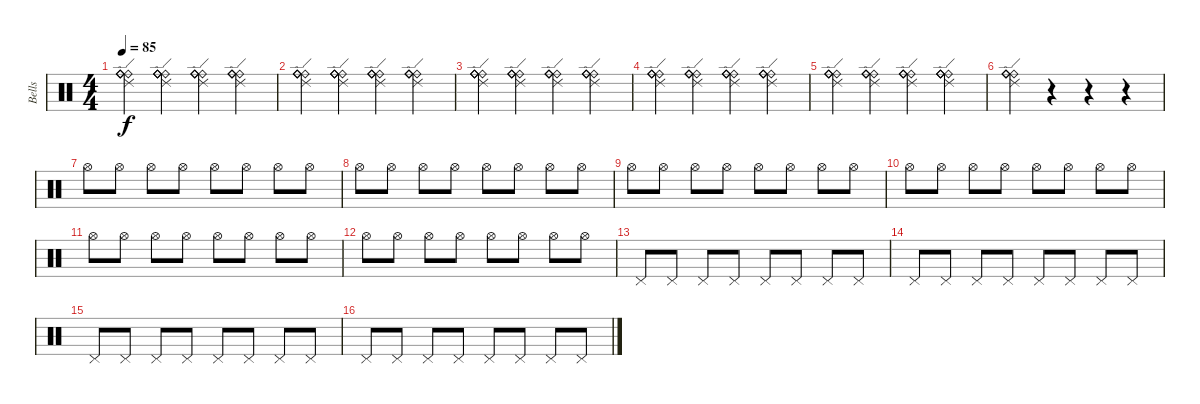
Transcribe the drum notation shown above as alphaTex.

\track ("Bells" "Bells") {instrument percussion}
\staff {score}
\articulation defaults
\ts (4 4)
\tempo 85
\clef neutral
\ks c
("Ride (bell)" "Ride (bell)" "Ride (bell)" "Ride (bell)" "Ride (edge) 2").4{dy f} ("Ride (bell)" "Ride (bell)" "Ride (bell)" "Ride (bell)" "Ride (edge) 2").4 ("Ride (bell)" "Ride (bell)" "Ride (bell)" "Ride (bell)" "Ride (edge) 2").4 ("Ride (bell)" "Ride (bell)" "Ride (bell)" "Ride (bell)" "Ride (edge) 2").4 |
("Ride (bell)" "Ride (bell)" "Ride (bell)" "Ride (bell)" "Ride (edge) 2").4 ("Ride (bell)" "Ride (bell)" "Ride (bell)" "Ride (bell)" "Ride (edge) 2").4 ("Ride (bell)" "Ride (bell)" "Ride (bell)" "Ride (bell)" "Ride (edge) 2").4 ("Ride (bell)" "Ride (bell)" "Ride (bell)" "Ride (bell)" "Ride (edge) 2").4 |
("Ride (bell)" "Ride (bell)" "Ride (bell)" "Ride (bell)" "Ride (edge) 2").4 ("Ride (bell)" "Ride (bell)" "Ride (bell)" "Ride (bell)" "Ride (edge) 2").4 ("Ride (bell)" "Ride (bell)" "Ride (bell)" "Ride (bell)" "Ride (edge) 2").4 ("Ride (bell)" "Ride (bell)" "Ride (bell)" "Ride (bell)" "Ride (edge) 2").4 |
("Ride (bell)" "Ride (bell)" "Ride (bell)" "Ride (bell)" "Ride (edge) 2").4 ("Ride (bell)" "Ride (bell)" "Ride (bell)" "Ride (bell)" "Ride (edge) 2").4 ("Ride (bell)" "Ride (bell)" "Ride (bell)" "Ride (bell)" "Ride (edge) 2").4 ("Ride (bell)" "Ride (bell)" "Ride (bell)" "Ride (bell)" "Ride (edge) 2").4 |
("Ride (bell)" "Ride (bell)" "Ride (bell)" "Ride (bell)" "Ride (edge) 2").4 ("Ride (bell)" "Ride (bell)" "Ride (bell)" "Ride (bell)" "Ride (edge) 2").4 ("Ride (bell)" "Ride (bell)" "Ride (bell)" "Ride (bell)" "Ride (edge) 2").4 ("Ride (bell)" "Ride (bell)" "Ride (bell)" "Ride (bell)" "Ride (edge) 2").4 |
("Ride (bell)" "Ride (bell)" "Ride (bell)" "Ride (bell)" "Ride (edge) 2").4 r.4 r.4 r.4 |
"Hi-Hat (open)".8{balance 12} "Hi-Hat (open)".8 "Hi-Hat (open)".8 "Hi-Hat (open)".8 "Hi-Hat (open)".8 "Hi-Hat (open)".8 "Hi-Hat (open)".8 "Hi-Hat (open)".8 |
"Hi-Hat (open)".8 "Hi-Hat (open)".8 "Hi-Hat (open)".8 "Hi-Hat (open)".8 "Hi-Hat (open)".8 "Hi-Hat (open)".8 "Hi-Hat (open)".8 "Hi-Hat (open)".8 |
"Hi-Hat (open)".8 "Hi-Hat (open)".8 "Hi-Hat (open)".8 "Hi-Hat (open)".8 "Hi-Hat (open)".8 "Hi-Hat (open)".8 "Hi-Hat (open)".8 "Hi-Hat (open)".8 |
"Hi-Hat (open)".8 "Hi-Hat (open)".8 "Hi-Hat (open)".8 "Hi-Hat (open)".8 "Hi-Hat (open)".8 "Hi-Hat (open)".8 "Hi-Hat (open)".8 "Hi-Hat (open)".8 |
"Hi-Hat (open)".8 "Hi-Hat (open)".8 "Hi-Hat (open)".8 "Hi-Hat (open)".8 "Hi-Hat (open)".8 "Hi-Hat (open)".8 "Hi-Hat (open)".8 "Hi-Hat (open)".8 |
"Hi-Hat (open)".8 "Hi-Hat (open)".8 "Hi-Hat (open)".8 "Hi-Hat (open)".8 "Hi-Hat (open)".8 "Hi-Hat (open)".8 "Hi-Hat (open)".8 "Hi-Hat (open)".8 |
"Pedal Hi-Hat (hit)".8 "Pedal Hi-Hat (hit)".8 "Pedal Hi-Hat (hit)".8 "Pedal Hi-Hat (hit)".8 "Pedal Hi-Hat (hit)".8 "Pedal Hi-Hat (hit)".8 "Pedal Hi-Hat (hit)".8 "Pedal Hi-Hat (hit)".8 |
"Pedal Hi-Hat (hit)".8 "Pedal Hi-Hat (hit)".8 "Pedal Hi-Hat (hit)".8 "Pedal Hi-Hat (hit)".8 "Pedal Hi-Hat (hit)".8 "Pedal Hi-Hat (hit)".8 "Pedal Hi-Hat (hit)".8 "Pedal Hi-Hat (hit)".8 |
"Pedal Hi-Hat (hit)".8 "Pedal Hi-Hat (hit)".8 "Pedal Hi-Hat (hit)".8 "Pedal Hi-Hat (hit)".8 "Pedal Hi-Hat (hit)".8 "Pedal Hi-Hat (hit)".8 "Pedal Hi-Hat (hit)".8 "Pedal Hi-Hat (hit)".8 |
"Pedal Hi-Hat (hit)".8 "Pedal Hi-Hat (hit)".8 "Pedal Hi-Hat (hit)".8 "Pedal Hi-Hat (hit)".8 "Pedal Hi-Hat (hit)".8 "Pedal Hi-Hat (hit)".8 "Pedal Hi-Hat (hit)".8 "Pedal Hi-Hat (hit)".8
